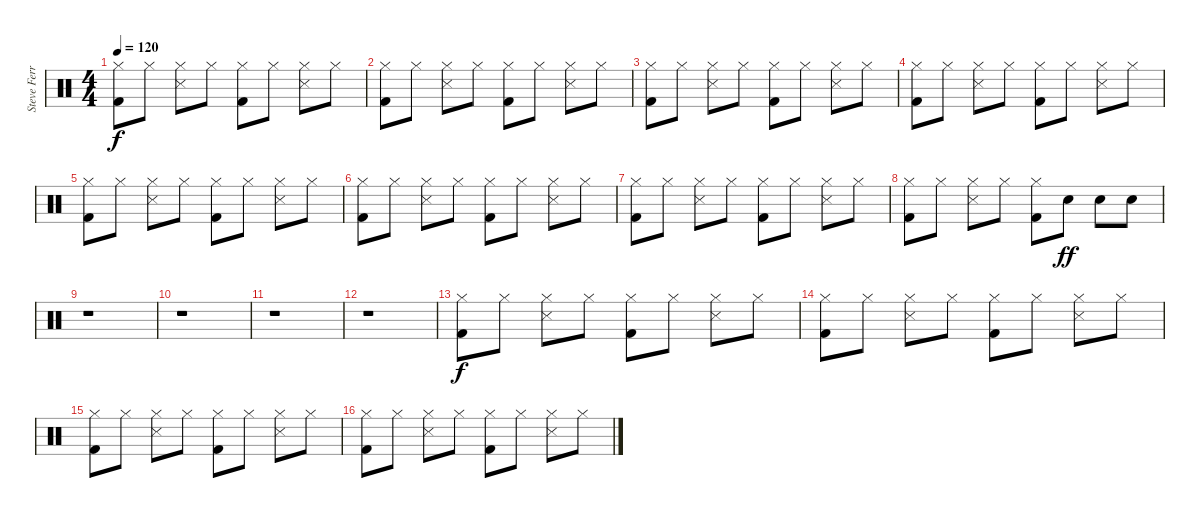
\track ("Steve Ferrone" "Steve Ferr") {instrument percussion}
\staff {score}
\articulation defaults
\ts (4 4)
\tempo 120
\clef neutral
\ks c
("Kick (hit) 2" "Hi-Hat (closed)").8{dy f} "Hi-Hat (closed)".8 ("Snare (side stick) 3" "Hi-Hat (closed)").8 "Hi-Hat (closed)".8 ("Kick (hit) 2" "Hi-Hat (closed)").8 "Hi-Hat (closed)".8 ("Snare (side stick) 3" "Hi-Hat (closed)").8 "Hi-Hat (closed)".8 |
("Kick (hit) 2" "Hi-Hat (closed)").8 "Hi-Hat (closed)".8 ("Snare (side stick) 3" "Hi-Hat (closed)").8 "Hi-Hat (closed)".8 ("Kick (hit) 2" "Hi-Hat (closed)").8 "Hi-Hat (closed)".8 ("Snare (side stick) 3" "Hi-Hat (closed)").8 "Hi-Hat (closed)".8 |
("Kick (hit) 2" "Hi-Hat (closed)").8 "Hi-Hat (closed)".8 ("Snare (side stick) 3" "Hi-Hat (closed)").8 "Hi-Hat (closed)".8 ("Kick (hit) 2" "Hi-Hat (closed)").8 "Hi-Hat (closed)".8 ("Snare (side stick) 3" "Hi-Hat (closed)").8 "Hi-Hat (closed)".8 |
("Kick (hit) 2" "Hi-Hat (closed)").8 "Hi-Hat (closed)".8 ("Snare (side stick) 3" "Hi-Hat (closed)").8 "Hi-Hat (closed)".8 ("Kick (hit) 2" "Hi-Hat (closed)").8 "Hi-Hat (closed)".8 ("Snare (side stick) 3" "Hi-Hat (closed)").8 "Hi-Hat (closed)".8 |
("Kick (hit) 2" "Hi-Hat (closed)").8 "Hi-Hat (closed)".8 ("Snare (side stick) 3" "Hi-Hat (closed)").8 "Hi-Hat (closed)".8 ("Kick (hit) 2" "Hi-Hat (closed)").8 "Hi-Hat (closed)".8 ("Snare (side stick) 3" "Hi-Hat (closed)").8 "Hi-Hat (closed)".8 |
("Kick (hit) 2" "Hi-Hat (closed)").8 "Hi-Hat (closed)".8 ("Snare (side stick) 3" "Hi-Hat (closed)").8 "Hi-Hat (closed)".8 ("Kick (hit) 2" "Hi-Hat (closed)").8 "Hi-Hat (closed)".8 ("Snare (side stick) 3" "Hi-Hat (closed)").8 "Hi-Hat (closed)".8 |
("Kick (hit) 2" "Hi-Hat (closed)").8 "Hi-Hat (closed)".8 ("Snare (side stick) 3" "Hi-Hat (closed)").8 "Hi-Hat (closed)".8 ("Kick (hit) 2" "Hi-Hat (closed)").8 "Hi-Hat (closed)".8 ("Snare (side stick) 3" "Hi-Hat (closed)").8 "Hi-Hat (closed)".8 |
("Kick (hit) 2" "Hi-Hat (closed)").8 "Hi-Hat (closed)".8 ("Snare (side stick) 3" "Hi-Hat (closed)").8 "Hi-Hat (closed)".8 ("Kick (hit) 2" "Hi-Hat (closed)").8 "Electric Snare (hit)".8{dy ff} "Electric Snare (hit)".8 "Electric Snare (hit)".8 |
r.1 |
r.1 |
r.1 |
r.1 |
("Kick (hit) 2" "Hi-Hat (closed)").8{dy f} "Hi-Hat (closed)".8 ("Snare (side stick) 3" "Hi-Hat (closed)").8 "Hi-Hat (closed)".8 ("Kick (hit) 2" "Hi-Hat (closed)").8 "Hi-Hat (closed)".8 ("Snare (side stick) 3" "Hi-Hat (closed)").8 "Hi-Hat (closed)".8 |
("Kick (hit) 2" "Hi-Hat (closed)").8 "Hi-Hat (closed)".8 ("Snare (side stick) 3" "Hi-Hat (closed)").8 "Hi-Hat (closed)".8 ("Kick (hit) 2" "Hi-Hat (closed)").8 "Hi-Hat (closed)".8 ("Snare (side stick) 3" "Hi-Hat (closed)").8 "Hi-Hat (closed)".8 |
("Kick (hit) 2" "Hi-Hat (closed)").8 "Hi-Hat (closed)".8 ("Snare (side stick) 3" "Hi-Hat (closed)").8 "Hi-Hat (closed)".8 ("Kick (hit) 2" "Hi-Hat (closed)").8 "Hi-Hat (closed)".8 ("Snare (side stick) 3" "Hi-Hat (closed)").8 "Hi-Hat (closed)".8 |
("Kick (hit) 2" "Hi-Hat (closed)").8 "Hi-Hat (closed)".8 ("Snare (side stick) 3" "Hi-Hat (closed)").8 "Hi-Hat (closed)".8 ("Kick (hit) 2" "Hi-Hat (closed)").8 "Hi-Hat (closed)".8 ("Snare (side stick) 3" "Hi-Hat (closed)").8 "Hi-Hat (closed)".8
